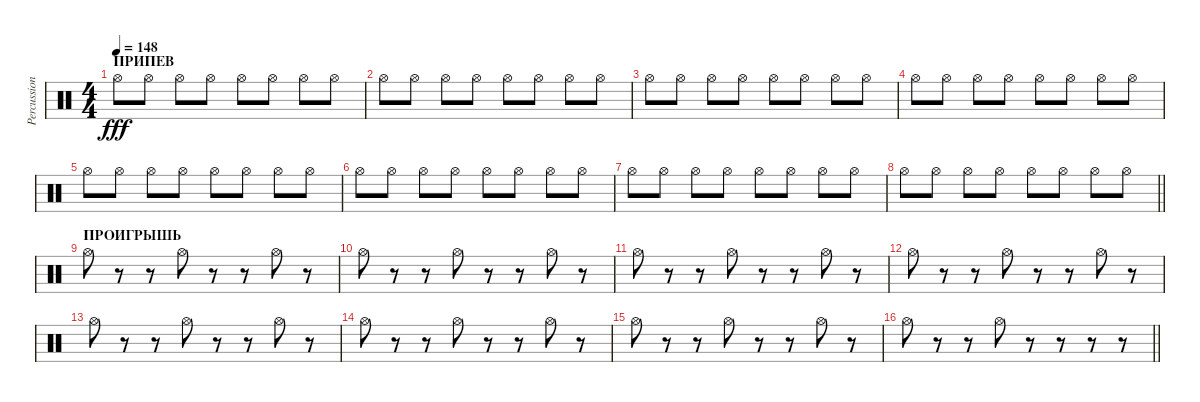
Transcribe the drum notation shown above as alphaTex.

\track ("Percussion" "Percussion") {instrument percussion}
\staff {score}
\articulation defaults
\ts (4 4)
\section ("" "ПРИПЕВ")
\tempo 148
\clef neutral
\ks c "Hi-Hat (open)".8{dy fff} "Hi-Hat (open)".8 "Hi-Hat (open)".8 "Hi-Hat (open)".8 "Hi-Hat (open)".8 "Hi-Hat (open)".8 "Hi-Hat (open)".8 "Hi-Hat (open)".8
|
"Hi-Hat (open)".8 "Hi-Hat (open)".8 "Hi-Hat (open)".8 "Hi-Hat (open)".8 "Hi-Hat (open)".8 "Hi-Hat (open)".8 "Hi-Hat (open)".8 "Hi-Hat (open)".8 |
"Hi-Hat (open)".8 "Hi-Hat (open)".8 "Hi-Hat (open)".8 "Hi-Hat (open)".8 "Hi-Hat (open)".8 "Hi-Hat (open)".8 "Hi-Hat (open)".8 "Hi-Hat (open)".8 |
"Hi-Hat (open)".8 "Hi-Hat (open)".8 "Hi-Hat (open)".8 "Hi-Hat (open)".8 "Hi-Hat (open)".8 "Hi-Hat (open)".8 "Hi-Hat (open)".8 "Hi-Hat (open)".8 |
"Hi-Hat (open)".8 "Hi-Hat (open)".8 "Hi-Hat (open)".8 "Hi-Hat (open)".8 "Hi-Hat (open)".8 "Hi-Hat (open)".8 "Hi-Hat (open)".8 "Hi-Hat (open)".8 |
"Hi-Hat (open)".8 "Hi-Hat (open)".8 "Hi-Hat (open)".8 "Hi-Hat (open)".8 "Hi-Hat (open)".8 "Hi-Hat (open)".8 "Hi-Hat (open)".8 "Hi-Hat (open)".8 |
"Hi-Hat (open)".8 "Hi-Hat (open)".8 "Hi-Hat (open)".8 "Hi-Hat (open)".8 "Hi-Hat (open)".8 "Hi-Hat (open)".8 "Hi-Hat (open)".8 "Hi-Hat (open)".8 |
\barLineRight lightlight "Hi-Hat (open)".8 "Hi-Hat (open)".8 "Hi-Hat (open)".8 "Hi-Hat (open)".8 "Hi-Hat (open)".8 "Hi-Hat (open)".8 "Hi-Hat (open)".8 "Hi-Hat (open)".8
|
\section ("" "ПРОИГРЫШЬ")
"Hi-Hat (open)".8 r.8 r.8 "Hi-Hat (open)".8 r.8 r.8 "Hi-Hat (open)".8 r.8 |
"Hi-Hat (open)".8 r.8 r.8 "Hi-Hat (open)".8 r.8 r.8 "Hi-Hat (open)".8 r.8 |
"Hi-Hat (open)".8 r.8 r.8 "Hi-Hat (open)".8 r.8 r.8 "Hi-Hat (open)".8 r.8 |
"Hi-Hat (open)".8 r.8 r.8 "Hi-Hat (open)".8 r.8 r.8 "Hi-Hat (open)".8 r.8 |
"Hi-Hat (open)".8 r.8 r.8 "Hi-Hat (open)".8 r.8 r.8 "Hi-Hat (open)".8 r.8 |
"Hi-Hat (open)".8 r.8 r.8 "Hi-Hat (open)".8 r.8 r.8 "Hi-Hat (open)".8 r.8 |
"Hi-Hat (open)".8 r.8 r.8 "Hi-Hat (open)".8 r.8 r.8 "Hi-Hat (open)".8 r.8 |
\barLineRight lightlight "Hi-Hat (open)".8
r.8 r.8 "Hi-Hat (open)".8 r.8 r.8 r.8 r.8
